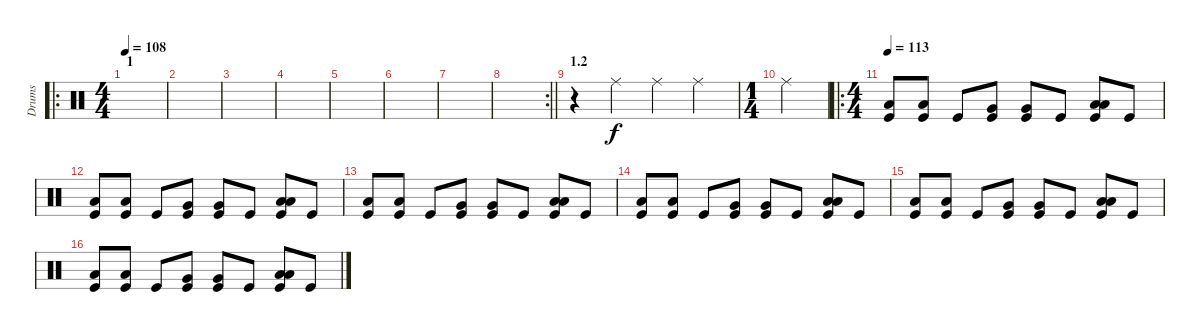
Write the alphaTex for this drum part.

\track ("Drums" "Drums") {instrument percussion}
\staff {score}
\articulation defaults
\ro
\ts (4 4)
\section ("" "1")
\tempo 108
\clef neutral
\ks c
|
|
|
|
|
|
|
\rc 2
\barLineRight lightlight
|
\section ("" "1.2")
r.4 "Ride (middle)".4 "Ride (middle)".4 "Ride (middle)".4 |
\ts (1 4)
"Ride (middle)".4 |
\ro
\ts (4 4)
\tempo 113
("Kick (hit)" "Low Tom (hit)").8 ("Kick (hit)" "Low Tom (hit)").8 "Kick (hit)".8 ("Kick (hit)" "Very Low Tom (hit)").8 ("Kick (hit)" "Very Low Tom (hit)").8 "Kick (hit)".8 ("Kick (hit)" "Low Floor Tom (hit)" "Low Floor Tom (hit)").8 "Kick (hit)".8 |
("Kick (hit)" "Low Tom (hit)").8 ("Kick (hit)" "Low Tom (hit)").8 "Kick (hit)".8 ("Kick (hit)" "Very Low Tom (hit)").8 ("Kick (hit)" "Very Low Tom (hit)").8 "Kick (hit)".8 ("Kick (hit)" "Low Floor Tom (hit)" "Low Floor Tom (hit)").8 "Kick (hit)".8 |
("Kick (hit)" "Low Tom (hit)").8 ("Kick (hit)" "Low Tom (hit)").8 "Kick (hit)".8 ("Kick (hit)" "Very Low Tom (hit)").8 ("Kick (hit)" "Very Low Tom (hit)").8 "Kick (hit)".8 ("Kick (hit)" "Low Floor Tom (hit)" "Low Floor Tom (hit)").8 "Kick (hit)".8 |
("Kick (hit)" "Low Tom (hit)").8 ("Kick (hit)" "Low Tom (hit)").8 "Kick (hit)".8 ("Kick (hit)" "Very Low Tom (hit)").8 ("Kick (hit)" "Very Low Tom (hit)").8 "Kick (hit)".8 ("Kick (hit)" "Low Floor Tom (hit)" "Low Floor Tom (hit)").8 "Kick (hit)".8 |
("Kick (hit)" "Low Tom (hit)").8 ("Kick (hit)" "Low Tom (hit)").8 "Kick (hit)".8 ("Kick (hit)" "Very Low Tom (hit)").8 ("Kick (hit)" "Very Low Tom (hit)").8 "Kick (hit)".8 ("Kick (hit)" "Low Floor Tom (hit)" "Low Floor Tom (hit)").8 "Kick (hit)".8 |
("Kick (hit)" "Low Tom (hit)").8 ("Kick (hit)" "Low Tom (hit)").8 "Kick (hit)".8 ("Kick (hit)" "Very Low Tom (hit)").8 ("Kick (hit)" "Very Low Tom (hit)").8 "Kick (hit)".8 ("Kick (hit)" "Low Floor Tom (hit)" "Low Floor Tom (hit)").8 "Kick (hit)".8
